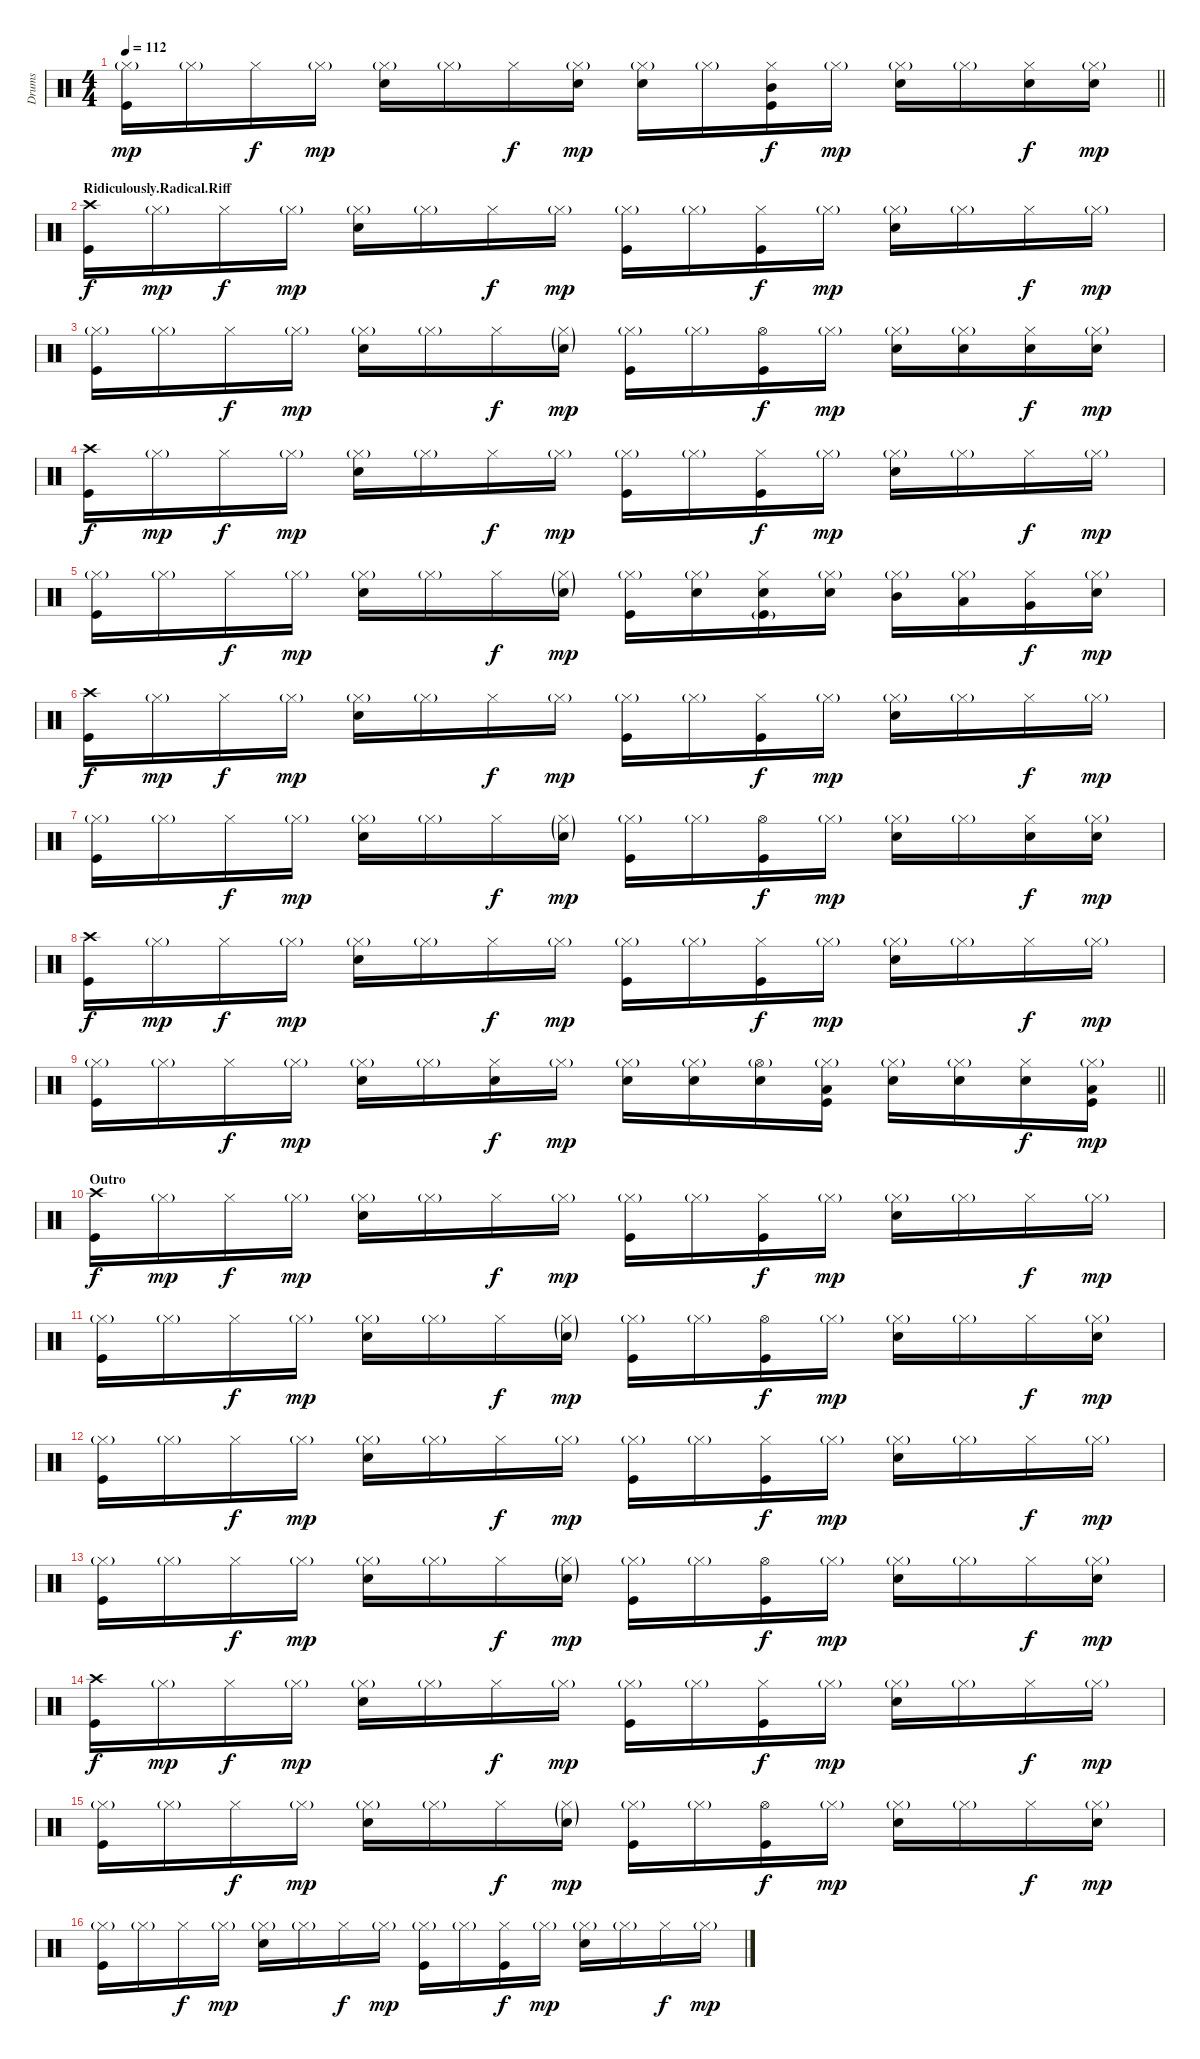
\track ("Drums" "Drums") {instrument percussion}
\staff {score}
\articulation defaults
\ts (4 4)
\tempo 112
\clef neutral
\barLineRight lightlight
\ks c
("Hi-Hat (closed)"{g} "Kick (hit)").16{dy mp} "Hi-Hat (closed)"{g}.16 "Hi-Hat (closed)".16{dy f} "Hi-Hat (closed)"{g}.16{dy mp} ("Hi-Hat (closed)"{g} "Snare (hit) 2").16 "Hi-Hat (closed)"{g}.16 "Hi-Hat (closed)".16{dy f} ("Hi-Hat (closed)"{g} "Snare (hit) 2").16{dy mp} ("Hi-Hat (closed)"{g} "Snare (hit) 2").16 "Hi-Hat (closed)"{g}.16 ("Hi-Hat (closed)" "Mid Tom (hit)" "Kick (hit)").16{dy f} "Hi-Hat (closed)"{g}.16{dy mp} ("Hi-Hat (closed)"{g} "Snare (hit) 2").16 "Hi-Hat (closed)"{g}.16 ("Hi-Hat (closed)" "Snare (hit) 2").16{dy f} ("Hi-Hat (closed)"{g} "Snare (hit) 2").16{dy mp} |
\section ("" "Ridiculously.Radical.Riff")
("Crash high (hit)" "Kick (hit)").16{dy f} "Hi-Hat (closed)"{g}.16{dy mp} "Hi-Hat (closed)".16{dy f} "Hi-Hat (closed)"{g}.16{dy mp} ("Hi-Hat (closed)"{g} "Snare (hit) 2").16 "Hi-Hat (closed)"{g}.16 "Hi-Hat (closed)".16{dy f} "Hi-Hat (closed)"{g}.16{dy mp} ("Hi-Hat (closed)"{g} "Kick (hit)").16 "Hi-Hat (closed)"{g}.16 ("Hi-Hat (closed)" "Kick (hit)").16{dy f} "Hi-Hat (closed)"{g}.16{dy mp} ("Hi-Hat (closed)"{g} "Snare (hit) 2").16 "Hi-Hat (closed)"{g}.16 "Hi-Hat (closed)".16{dy f} "Hi-Hat (closed)"{g}.16{dy mp} |
("Hi-Hat (closed)"{g} "Kick (hit)").16 "Hi-Hat (closed)"{g}.16 "Hi-Hat (closed)".16{dy f} "Hi-Hat (closed)"{g}.16{dy mp} ("Hi-Hat (closed)"{g} "Snare (hit) 2").16 "Hi-Hat (closed)"{g}.16 "Hi-Hat (closed)".16{dy f} ("Hi-Hat (closed)"{g} "Snare (hit) 2"{g}).16{dy mp} ("Hi-Hat (closed)"{g} "Kick (hit)").16 "Hi-Hat (closed)"{g}.16 ("Hi-Hat (open)" "Kick (hit)").16{dy f} "Hi-Hat (closed)"{g}.16{dy mp} ("Hi-Hat (closed)"{g} "Snare (hit) 2").16 ("Hi-Hat (closed)"{g} "Snare (hit) 2").16 ("Hi-Hat (closed)" "Snare (hit) 2").16{dy f} ("Hi-Hat (closed)"{g} "Snare (hit) 2").16{dy mp} |
("Crash high (hit)" "Kick (hit)").16{dy f} "Hi-Hat (closed)"{g}.16{dy mp} "Hi-Hat (closed)".16{dy f} "Hi-Hat (closed)"{g}.16{dy mp} ("Hi-Hat (closed)"{g} "Snare (hit) 2").16 "Hi-Hat (closed)"{g}.16 "Hi-Hat (closed)".16{dy f} "Hi-Hat (closed)"{g}.16{dy mp} ("Hi-Hat (closed)"{g} "Kick (hit)").16 "Hi-Hat (closed)"{g}.16 ("Hi-Hat (closed)" "Kick (hit)").16{dy f} "Hi-Hat (closed)"{g}.16{dy mp} ("Hi-Hat (closed)"{g} "Snare (hit) 2").16 "Hi-Hat (closed)"{g}.16 "Hi-Hat (closed)".16{dy f} "Hi-Hat (closed)"{g}.16{dy mp} |
("Hi-Hat (closed)"{g} "Kick (hit)").16 "Hi-Hat (closed)"{g}.16 "Hi-Hat (closed)".16{dy f} "Hi-Hat (closed)"{g}.16{dy mp} ("Hi-Hat (closed)"{g} "Snare (hit) 2").16 "Hi-Hat (closed)"{g}.16 "Hi-Hat (closed)".16{dy f} ("Hi-Hat (closed)"{g} "Snare (hit) 2"{g}).16{dy mp} ("Hi-Hat (closed)"{g} "Kick (hit)").16 ("Hi-Hat (closed)"{g} "Snare (hit) 2").16 ("Hi-Hat (closed)" "Snare (hit) 2" "Kick (hit)"{g}).16 ("Hi-Hat (closed)"{g} "Snare (hit) 2").16 ("Hi-Hat (closed)"{g} "Mid Tom (hit)").16 ("Hi-Hat (closed)"{g} "Low Tom (hit)").16 ("Hi-Hat (closed)" "Very Low Tom (hit)").16{dy f} ("Hi-Hat (closed)"{g} "Snare (hit) 2").16{dy mp} |
("Crash high (hit)" "Kick (hit)").16{dy f} "Hi-Hat (closed)"{g}.16{dy mp} "Hi-Hat (closed)".16{dy f} "Hi-Hat (closed)"{g}.16{dy mp} ("Hi-Hat (closed)"{g} "Snare (hit) 2").16 "Hi-Hat (closed)"{g}.16 "Hi-Hat (closed)".16{dy f} "Hi-Hat (closed)"{g}.16{dy mp} ("Hi-Hat (closed)"{g} "Kick (hit)").16 "Hi-Hat (closed)"{g}.16 ("Hi-Hat (closed)" "Kick (hit)").16{dy f} "Hi-Hat (closed)"{g}.16{dy mp} ("Hi-Hat (closed)"{g} "Snare (hit) 2").16 "Hi-Hat (closed)"{g}.16 "Hi-Hat (closed)".16{dy f} "Hi-Hat (closed)"{g}.16{dy mp} |
("Hi-Hat (closed)"{g} "Kick (hit)").16 "Hi-Hat (closed)"{g}.16 "Hi-Hat (closed)".16{dy f} "Hi-Hat (closed)"{g}.16{dy mp} ("Hi-Hat (closed)"{g} "Snare (hit) 2").16 "Hi-Hat (closed)"{g}.16 "Hi-Hat (closed)".16{dy f} ("Hi-Hat (closed)"{g} "Snare (hit) 2"{g}).16{dy mp} ("Hi-Hat (closed)"{g} "Kick (hit)").16 "Hi-Hat (closed)"{g}.16 ("Hi-Hat (open)" "Kick (hit)").16{dy f} "Hi-Hat (closed)"{g}.16{dy mp} ("Hi-Hat (closed)"{g} "Snare (hit) 2").16 "Hi-Hat (closed)"{g}.16 ("Hi-Hat (closed)" "Snare (hit) 2").16{dy f} ("Hi-Hat (closed)"{g} "Snare (hit) 2").16{dy mp} |
("Crash high (hit)" "Kick (hit)").16{dy f} "Hi-Hat (closed)"{g}.16{dy mp} "Hi-Hat (closed)".16{dy f} "Hi-Hat (closed)"{g}.16{dy mp} ("Hi-Hat (closed)"{g} "Snare (hit) 2").16 "Hi-Hat (closed)"{g}.16 "Hi-Hat (closed)".16{dy f} "Hi-Hat (closed)"{g}.16{dy mp} ("Hi-Hat (closed)"{g} "Kick (hit)").16 "Hi-Hat (closed)"{g}.16 ("Hi-Hat (closed)" "Kick (hit)").16{dy f} "Hi-Hat (closed)"{g}.16{dy mp} ("Hi-Hat (closed)"{g} "Snare (hit) 2").16 "Hi-Hat (closed)"{g}.16 "Hi-Hat (closed)".16{dy f} "Hi-Hat (closed)"{g}.16{dy mp} |
\barLineRight lightlight
("Hi-Hat (closed)"{g} "Kick (hit)").16 "Hi-Hat (closed)"{g}.16 "Hi-Hat (closed)".16{dy f} "Hi-Hat (closed)"{g}.16{dy mp} ("Hi-Hat (closed)"{g} "Snare (hit) 2").16 "Hi-Hat (closed)"{g}.16 ("Hi-Hat (closed)" "Snare (hit) 2").16{dy f} "Hi-Hat (closed)"{g}.16{dy mp} ("Hi-Hat (closed)"{g} "Snare (hit) 2").16 ("Hi-Hat (closed)"{g} "Snare (hit) 2").16 ("Hi-Hat (open)"{g} "Snare (hit) 2").16 ("Hi-Hat (closed)"{g} "Low Tom (hit)" "Kick (hit)").16 ("Hi-Hat (closed)"{g} "Snare (hit) 2").16 ("Hi-Hat (closed)"{g} "Snare (hit) 2").16 ("Hi-Hat (closed)" "Snare (hit) 2").16{dy f} ("Hi-Hat (closed)"{g} "Low Tom (hit)" "Kick (hit)").16{dy mp} |
\section ("" "Outro")
("Crash high (hit)" "Kick (hit)").16{dy f} "Hi-Hat (closed)"{g}.16{dy mp} "Hi-Hat (closed)".16{dy f} "Hi-Hat (closed)"{g}.16{dy mp} ("Hi-Hat (closed)"{g} "Snare (hit) 2").16 "Hi-Hat (closed)"{g}.16 "Hi-Hat (closed)".16{dy f} "Hi-Hat (closed)"{g}.16{dy mp} ("Hi-Hat (closed)"{g} "Kick (hit)").16 "Hi-Hat (closed)"{g}.16 ("Hi-Hat (closed)" "Kick (hit)").16{dy f} "Hi-Hat (closed)"{g}.16{dy mp} ("Hi-Hat (closed)"{g} "Snare (hit) 2").16 "Hi-Hat (closed)"{g}.16 "Hi-Hat (closed)".16{dy f} "Hi-Hat (closed)"{g}.16{dy mp} |
("Hi-Hat (closed)"{g} "Kick (hit)").16 "Hi-Hat (closed)"{g}.16 "Hi-Hat (closed)".16{dy f} "Hi-Hat (closed)"{g}.16{dy mp} ("Hi-Hat (closed)"{g} "Snare (hit) 2").16 "Hi-Hat (closed)"{g}.16 "Hi-Hat (closed)".16{dy f} ("Hi-Hat (closed)"{g} "Snare (hit) 2"{g}).16{dy mp} ("Hi-Hat (closed)"{g} "Kick (hit)").16 "Hi-Hat (closed)"{g}.16 ("Hi-Hat (open)" "Kick (hit)").16{dy f} "Hi-Hat (closed)"{g}.16{dy mp} ("Hi-Hat (closed)"{g} "Snare (hit) 2").16 "Hi-Hat (closed)"{g}.16 "Hi-Hat (closed)".16{dy f} ("Hi-Hat (closed)"{g} "Snare (hit) 2").16{dy mp} |
("Hi-Hat (closed)"{g} "Kick (hit)").16 "Hi-Hat (closed)"{g}.16 "Hi-Hat (closed)".16{dy f} "Hi-Hat (closed)"{g}.16{dy mp} ("Hi-Hat (closed)"{g} "Snare (hit) 2").16 "Hi-Hat (closed)"{g}.16 "Hi-Hat (closed)".16{dy f} "Hi-Hat (closed)"{g}.16{dy mp} ("Hi-Hat (closed)"{g} "Kick (hit)").16 "Hi-Hat (closed)"{g}.16 ("Hi-Hat (closed)" "Kick (hit)").16{dy f} "Hi-Hat (closed)"{g}.16{dy mp} ("Hi-Hat (closed)"{g} "Snare (hit) 2").16 "Hi-Hat (closed)"{g}.16 "Hi-Hat (closed)".16{dy f} "Hi-Hat (closed)"{g}.16{dy mp} |
("Hi-Hat (closed)"{g} "Kick (hit)").16 "Hi-Hat (closed)"{g}.16 "Hi-Hat (closed)".16{dy f} "Hi-Hat (closed)"{g}.16{dy mp} ("Hi-Hat (closed)"{g} "Snare (hit) 2").16 "Hi-Hat (closed)"{g}.16 "Hi-Hat (closed)".16{dy f} ("Hi-Hat (closed)"{g} "Snare (hit) 2"{g}).16{dy mp} ("Hi-Hat (closed)"{g} "Kick (hit)").16 "Hi-Hat (closed)"{g}.16 ("Hi-Hat (open)" "Kick (hit)").16{dy f} "Hi-Hat (closed)"{g}.16{dy mp} ("Hi-Hat (closed)"{g} "Snare (hit) 2").16 "Hi-Hat (closed)"{g}.16 "Hi-Hat (closed)".16{dy f} ("Hi-Hat (closed)"{g} "Snare (hit) 2").16{dy mp} |
("Crash high (hit)" "Kick (hit)").16{dy f} "Hi-Hat (closed)"{g}.16{dy mp} "Hi-Hat (closed)".16{dy f} "Hi-Hat (closed)"{g}.16{dy mp} ("Hi-Hat (closed)"{g} "Snare (hit) 2").16 "Hi-Hat (closed)"{g}.16 "Hi-Hat (closed)".16{dy f} "Hi-Hat (closed)"{g}.16{dy mp} ("Hi-Hat (closed)"{g} "Kick (hit)").16 "Hi-Hat (closed)"{g}.16 ("Hi-Hat (closed)" "Kick (hit)").16{dy f} "Hi-Hat (closed)"{g}.16{dy mp} ("Hi-Hat (closed)"{g} "Snare (hit) 2").16 "Hi-Hat (closed)"{g}.16 "Hi-Hat (closed)".16{dy f} "Hi-Hat (closed)"{g}.16{dy mp} |
("Hi-Hat (closed)"{g} "Kick (hit)").16 "Hi-Hat (closed)"{g}.16 "Hi-Hat (closed)".16{dy f} "Hi-Hat (closed)"{g}.16{dy mp} ("Hi-Hat (closed)"{g} "Snare (hit) 2").16 "Hi-Hat (closed)"{g}.16 "Hi-Hat (closed)".16{dy f} ("Hi-Hat (closed)"{g} "Snare (hit) 2"{g}).16{dy mp} ("Hi-Hat (closed)"{g} "Kick (hit)").16 "Hi-Hat (closed)"{g}.16 ("Hi-Hat (open)" "Kick (hit)").16{dy f} "Hi-Hat (closed)"{g}.16{dy mp} ("Hi-Hat (closed)"{g} "Snare (hit) 2").16 "Hi-Hat (closed)"{g}.16 "Hi-Hat (closed)".16{dy f} ("Hi-Hat (closed)"{g} "Snare (hit) 2").16{dy mp} |
("Hi-Hat (closed)"{g} "Kick (hit)").16 "Hi-Hat (closed)"{g}.16 "Hi-Hat (closed)".16{dy f} "Hi-Hat (closed)"{g}.16{dy mp} ("Hi-Hat (closed)"{g} "Snare (hit) 2").16 "Hi-Hat (closed)"{g}.16 "Hi-Hat (closed)".16{dy f} "Hi-Hat (closed)"{g}.16{dy mp} ("Hi-Hat (closed)"{g} "Kick (hit)").16 "Hi-Hat (closed)"{g}.16 ("Hi-Hat (closed)" "Kick (hit)").16{dy f} "Hi-Hat (closed)"{g}.16{dy mp} ("Hi-Hat (closed)"{g} "Snare (hit) 2").16 "Hi-Hat (closed)"{g}.16 "Hi-Hat (closed)".16{dy f} "Hi-Hat (closed)"{g}.16{dy mp}
